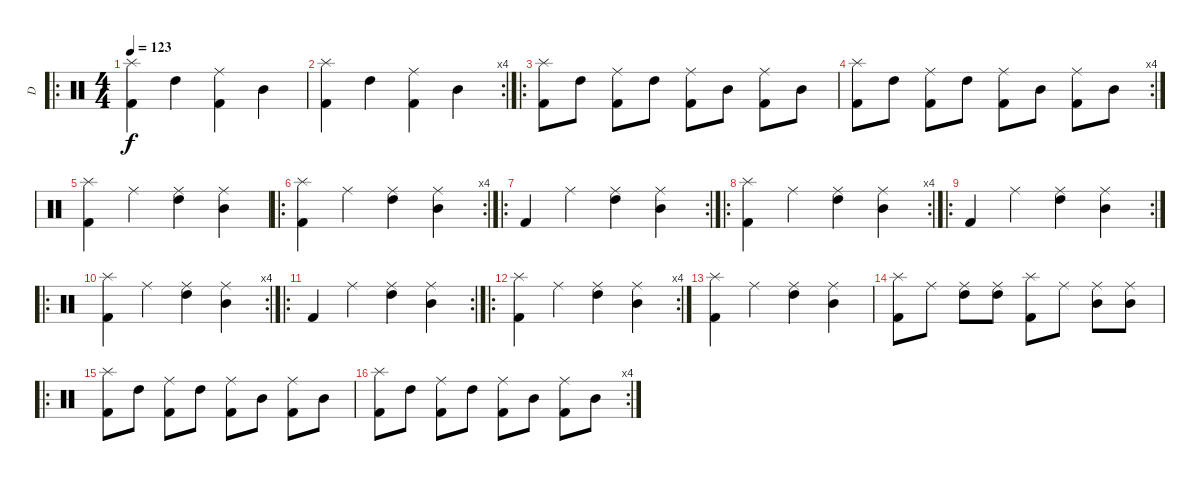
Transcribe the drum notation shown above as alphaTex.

\track ("D" "D") {instrument percussion}
\staff {score}
\articulation defaults
\ro
\ts (4 4)
\tempo 123
\clef neutral
\ks c
("Splash (hit)" "Kick (hit) 2").4{dy f} "High Tom (hit)".4 ("Ride (middle)" "Kick (hit) 2").4 "Mid Tom (hit)".4 |
\rc 4
("Splash (hit)" "Kick (hit) 2").4 "High Tom (hit)".4 ("Ride (middle)" "Kick (hit) 2").4 "Mid Tom (hit)".4 |
\ro
("Splash (hit)" "Kick (hit) 2").8 "High Tom (hit)".8 ("Ride (middle)" "Kick (hit) 2").8 "High Tom (hit)".8 ("Ride (middle)" "Kick (hit) 2").8 "Mid Tom (hit)".8 ("Ride (middle)" "Kick (hit) 2").8 "Mid Tom (hit)".8 |
\rc 4
("Splash (hit)" "Kick (hit) 2").8 "High Tom (hit)".8 ("Ride (middle)" "Kick (hit) 2").8 "High Tom (hit)".8 ("Ride (middle)" "Kick (hit) 2").8 "Mid Tom (hit)".8 ("Ride (middle)" "Kick (hit) 2").8 "Mid Tom (hit)".8 |
("Splash (hit)" "Kick (hit) 2").4 "Ride (middle)".4 ("Ride (middle)" "High Tom (hit)").4 ("Ride (middle)" "Mid Tom (hit)").4 |
\ro
\rc 4
("Splash (hit)" "Kick (hit) 2").4 "Ride (middle)".4 ("Ride (middle)" "High Tom (hit)").4 ("Ride (middle)" "Mid Tom (hit)").4 |
\ro
\rc 2 "Kick (hit) 2".4 "Ride (middle)".4
("Ride (middle)" "High Tom (hit)").4 ("Ride (middle)" "Mid Tom (hit)").4 |
\ro
\rc 4
("Splash (hit)" "Kick (hit) 2").4 "Ride (middle)".4 ("Ride (middle)" "High Tom (hit)").4 ("Ride (middle)" "Mid Tom (hit)").4 |
\ro
\rc 2 "Kick (hit) 2".4 "Ride (middle)".4
("Ride (middle)" "High Tom (hit)").4 ("Ride (middle)" "Mid Tom (hit)").4 |
\ro
\rc 4
("Splash (hit)" "Kick (hit) 2").4 "Ride (middle)".4 ("Ride (middle)" "High Tom (hit)").4 ("Ride (middle)" "Mid Tom (hit)").4 |
\ro
\rc 2 "Kick (hit) 2".4 "Ride (middle)".4
("Ride (middle)" "High Tom (hit)").4 ("Ride (middle)" "Mid Tom (hit)").4 |
\ro
\rc 4
("Splash (hit)" "Kick (hit) 2").4 "Ride (middle)".4 ("Ride (middle)" "High Tom (hit)").4 ("Ride (middle)" "Mid Tom (hit)").4 |
("Splash (hit)" "Kick (hit) 2").4 "Ride (middle)".4 ("Ride (middle)" "High Tom (hit)").4 ("Ride (middle)" "Mid Tom (hit)").4 |
("Splash (hit)" "Kick (hit) 2").8 "Ride (middle)".8 ("Ride (middle)" "High Tom (hit)").8 ("Ride (middle)" "High Tom (hit)").8 ("Splash (hit)" "Kick (hit) 2").8 "Ride (middle)".8 ("Ride (middle)" "Mid Tom (hit)").8 ("Ride (middle)" "Mid Tom (hit)").8 |
\ro
("Splash (hit)" "Kick (hit) 2").8 "High Tom (hit)".8 ("Ride (middle)" "Kick (hit) 2").8 "High Tom (hit)".8 ("Ride (middle)" "Kick (hit) 2").8 "Mid Tom (hit)".8 ("Ride (middle)" "Kick (hit) 2").8 "Mid Tom (hit)".8 |
\rc 4
("Splash (hit)" "Kick (hit) 2").8 "High Tom (hit)".8 ("Ride (middle)" "Kick (hit) 2").8 "High Tom (hit)".8 ("Ride (middle)" "Kick (hit) 2").8 "Mid Tom (hit)".8 ("Ride (middle)" "Kick (hit) 2").8 "Mid Tom (hit)".8
